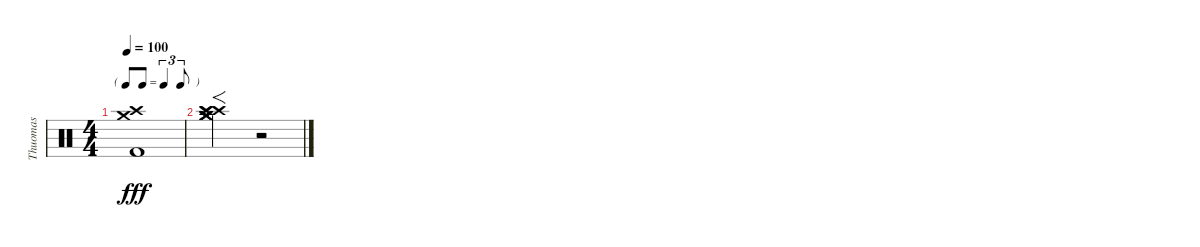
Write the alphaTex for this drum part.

\track ("Thuomas" "Thuomas") {instrument percussion}
\staff {score}
\articulation defaults
\ts (4 4)
\tf triplet8th
\tempo 100
\clef neutral
\ks c
("Crash medium (hit)" "Crash high (hit)" "Kick (hit) 2").1{dy fff} |
("Crash medium (hit)" "Crash medium (hit)" "Crash medium (hit)" "Crash high (hit)" "Crash high (hit)" "Crash high (hit)").2{f} r.2
